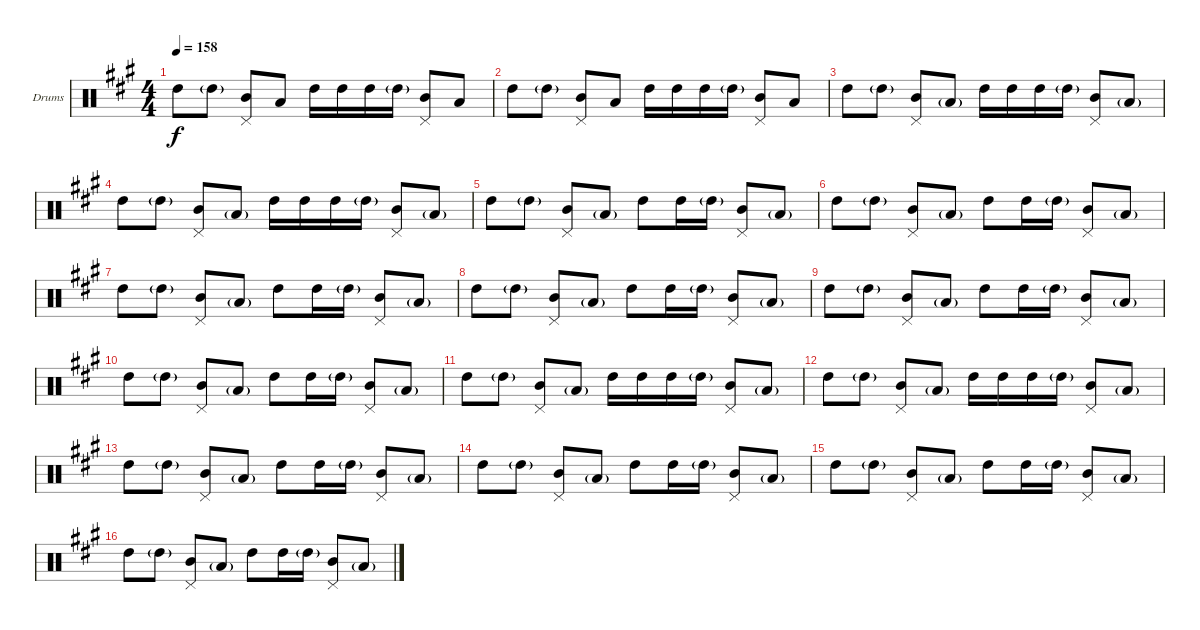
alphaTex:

\defaultSystemsLayout 4
\bracketExtendMode groupsimilarinstruments
\firstSystemTrackNameOrientation horizontal
\otherSystemsTrackNameOrientation horizontal
\track ("Drums" "Drums") {instrument percussion}
\staff {score}
\articulation defaults
\ts (4 4)
\tempo 158
\clef neutral
\scale
0.526971
\ks a "High Tom (hit)".8{dy f} "High Tom (hit)"{g}.8
("Mid Tom (hit)" "Pedal Hi-Hat (hit)").8 "Low Tom (hit)".8 "High Tom (hit)".16 "High Tom (hit)".16 "High Tom (hit)".16 "High Tom (hit)"{g}.16 ("Mid Tom (hit)" "Pedal Hi-Hat (hit)").8 "Low Tom (hit)".8 |
\scale
0.236515 "High Tom (hit)".8 "High Tom (hit)"{g}.8 ("Mid Tom (hit)" "Pedal Hi-Hat (hit)").8 "Low Tom (hit)".8 "High Tom (hit)".16 "High Tom (hit)".16 "High Tom (hit)".16 "High Tom (hit)"{g}.16 ("Mid Tom (hit)" "Pedal Hi-Hat (hit)").8 "Low Tom (hit)".8 |
\scale
0.236515 "High Tom (hit)".8 "High Tom (hit)"{g}.8 ("Mid Tom (hit)" "Pedal Hi-Hat (hit)").8 "Low Tom (hit)"{g}.8 "High Tom (hit)".16 "High Tom (hit)".16 "High Tom (hit)".16 "High Tom (hit)"{g}.16 ("Mid Tom (hit)" "Pedal Hi-Hat (hit)").8 "Low Tom (hit)"{g}.8 |
\scale
0.333333 "High Tom (hit)".8 "High Tom (hit)"{g}.8 ("Mid Tom (hit)" "Pedal Hi-Hat (hit)").8 "Low Tom (hit)"{g}.8 "High Tom (hit)".16 "High Tom (hit)".16 "High Tom (hit)".16 "High Tom (hit)"{g}.16 ("Mid Tom (hit)" "Pedal Hi-Hat (hit)").8 "Low Tom (hit)"{g}.8 |
\scale
0.333333 "High Tom (hit)".8 "High Tom (hit)"{g}.8 ("Mid Tom (hit)" "Pedal Hi-Hat (hit)").8 "Low Tom (hit)"{g}.8 "High Tom (hit)".8 "High Tom (hit)".16 "High Tom (hit)"{g}.16 ("Mid Tom (hit)" "Pedal Hi-Hat (hit)").8 "Low Tom (hit)"{g}.8 |
\scale
0.333333 "High Tom (hit)".8 "High Tom (hit)"{g}.8 ("Mid Tom (hit)" "Pedal Hi-Hat (hit)").8 "Low Tom (hit)"{g}.8 "High Tom (hit)".8 "High Tom (hit)".16 "High Tom (hit)"{g}.16 ("Mid Tom (hit)" "Pedal Hi-Hat (hit)").8 "Low Tom (hit)"{g}.8 |
\scale
0.333333 "High Tom (hit)".8 "High Tom (hit)"{g}.8 ("Mid Tom (hit)" "Pedal Hi-Hat (hit)").8 "Low Tom (hit)"{g}.8 "High Tom (hit)".8 "High Tom (hit)".16 "High Tom (hit)"{g}.16 ("Mid Tom (hit)" "Pedal Hi-Hat (hit)").8 "Low Tom (hit)"{g}.8 |
\scale
0.333333 "High Tom (hit)".8 "High Tom (hit)"{g}.8 ("Mid Tom (hit)" "Pedal Hi-Hat (hit)").8 "Low Tom (hit)"{g}.8 "High Tom (hit)".8 "High Tom (hit)".16 "High Tom (hit)"{g}.16 ("Mid Tom (hit)" "Pedal Hi-Hat (hit)").8 "Low Tom (hit)"{g}.8 |
\scale
0.333333 "High Tom (hit)".8 "High Tom (hit)"{g}.8 ("Mid Tom (hit)" "Pedal Hi-Hat (hit)").8 "Low Tom (hit)"{g}.8 "High Tom (hit)".8 "High Tom (hit)".16 "High Tom (hit)"{g}.16 ("Mid Tom (hit)" "Pedal Hi-Hat (hit)").8 "Low Tom (hit)"{g}.8 |
\scale
0.333333 "High Tom (hit)".8 "High Tom (hit)"{g}.8 ("Mid Tom (hit)" "Pedal Hi-Hat (hit)").8 "Low Tom (hit)"{g}.8 "High Tom (hit)".8 "High Tom (hit)".16 "High Tom (hit)"{g}.16 ("Mid Tom (hit)" "Pedal Hi-Hat (hit)").8 "Low Tom (hit)"{g}.8 |
\scale
0.333333 "High Tom (hit)".8 "High Tom (hit)"{g}.8 ("Mid Tom (hit)" "Pedal Hi-Hat (hit)").8 "Low Tom (hit)"{g}.8 "High Tom (hit)".16 "High Tom (hit)".16 "High Tom (hit)".16 "High Tom (hit)"{g}.16 ("Mid Tom (hit)" "Pedal Hi-Hat (hit)").8 "Low Tom (hit)"{g}.8 |
\scale
0.333333 "High Tom (hit)".8 "High Tom (hit)"{g}.8 ("Mid Tom (hit)" "Pedal Hi-Hat (hit)").8 "Low Tom (hit)"{g}.8 "High Tom (hit)".16 "High Tom (hit)".16 "High Tom (hit)".16 "High Tom (hit)"{g}.16 ("Mid Tom (hit)" "Pedal Hi-Hat (hit)").8 "Low Tom (hit)"{g}.8 |
\scale
0.333333 "High Tom (hit)".8 "High Tom (hit)"{g}.8 ("Mid Tom (hit)" "Pedal Hi-Hat (hit)").8 "Low Tom (hit)"{g}.8 "High Tom (hit)".8 "High Tom (hit)".16 "High Tom (hit)"{g}.16 ("Mid Tom (hit)" "Pedal Hi-Hat (hit)").8 "Low Tom (hit)"{g}.8 |
\scale
0.333333 "High Tom (hit)".8 "High Tom (hit)"{g}.8 ("Mid Tom (hit)" "Pedal Hi-Hat (hit)").8 "Low Tom (hit)"{g}.8 "High Tom (hit)".8 "High Tom (hit)".16 "High Tom (hit)"{g}.16 ("Mid Tom (hit)" "Pedal Hi-Hat (hit)").8 "Low Tom (hit)"{g}.8 |
\scale
0.333333 "High Tom (hit)".8 "High Tom (hit)"{g}.8 ("Mid Tom (hit)" "Pedal Hi-Hat (hit)").8 "Low Tom (hit)"{g}.8 "High Tom (hit)".8 "High Tom (hit)".16 "High Tom (hit)"{g}.16 ("Mid Tom (hit)" "Pedal Hi-Hat (hit)").8 "Low Tom (hit)"{g}.8 |
\scale
0.333333 "High Tom (hit)".8 "High Tom (hit)"{g}.8 ("Mid Tom (hit)" "Pedal Hi-Hat (hit)").8 "Low Tom (hit)"{g}.8 "High Tom (hit)".8 "High Tom (hit)".16 "High Tom (hit)"{g}.16 ("Mid Tom (hit)" "Pedal Hi-Hat (hit)").8 "Low Tom (hit)"{g}.8
